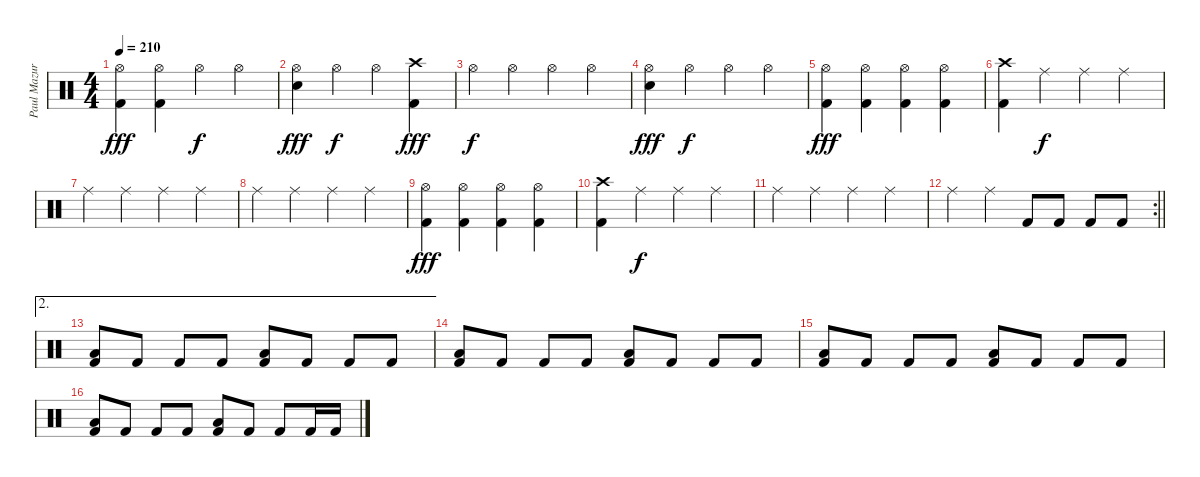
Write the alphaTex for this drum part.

\track ("Paul Mazurkiewicz" "Paul Mazur") {instrument percussion}
\staff {score}
\articulation defaults
\ts (4 4)
\tempo 210
\clef neutral
\ks c
("Hi-Hat (open)" "Kick (hit) 2").4{dy fff} ("Hi-Hat (open)" "Kick (hit) 2").4 "Hi-Hat (open)".4{dy f} "Hi-Hat (open)".4 |
("Hi-Hat (open)" "Electric Snare (hit)").4{dy fff} "Hi-Hat (open)".4{dy f} "Hi-Hat (open)".4 ("Crash high (hit)" "Kick (hit) 2").4{dy fff} |
"Hi-Hat (open)".4{dy f} "Hi-Hat (open)".4 "Hi-Hat (open)".4 "Hi-Hat (open)".4 |
("Hi-Hat (open)" "Electric Snare (hit)").4{dy fff} "Hi-Hat (open)".4{dy f} "Hi-Hat (open)".4 "Hi-Hat (open)".4 |
("Hi-Hat (open)" "Kick (hit) 2").4{dy fff} ("Hi-Hat (open)" "Kick (hit) 2").4 ("Hi-Hat (open)" "Kick (hit) 2").4 ("Hi-Hat (open)" "Kick (hit) 2").4 |
("Crash high (hit)" "Kick (hit) 2").4 "Ride (middle)".4{dy f} "Ride (middle)".4 "Ride (middle)".4 |
"Ride (middle)".4 "Ride (middle)".4 "Ride (middle)".4 "Ride (middle)".4 |
"Ride (middle)".4 "Ride (middle)".4 "Ride (middle)".4 "Ride (middle)".4 |
("Hi-Hat (open)" "Kick (hit) 2").4{dy fff} ("Hi-Hat (open)" "Kick (hit) 2").4 ("Hi-Hat (open)" "Kick (hit) 2").4 ("Hi-Hat (open)" "Kick (hit) 2").4 |
("Crash high (hit)" "Kick (hit) 2").4 "Ride (middle)".4{dy f} "Ride (middle)".4 "Ride (middle)".4 |
"Ride (middle)".4 "Ride (middle)".4 "Ride (middle)".4 "Ride (middle)".4 |
\rc 2
\barLineRight lightlight "Ride (middle)".4 "Ride (middle)".4 "Kick (hit) 2".8 "Kick (hit) 2".8 "Kick (hit) 2".8 "Kick (hit) 2".8
|
\ae 2
("Low Floor Tom (hit)" "Kick (hit) 2").8 "Kick (hit) 2".8 "Kick (hit) 2".8 "Kick (hit) 2".8 ("Low Floor Tom (hit)" "Kick (hit) 2").8 "Kick (hit) 2".8 "Kick (hit) 2".8 "Kick (hit) 2".8 |
("Low Floor Tom (hit)" "Kick (hit) 2").8 "Kick (hit) 2".8 "Kick (hit) 2".8 "Kick (hit) 2".8 ("Low Floor Tom (hit)" "Kick (hit) 2").8 "Kick (hit) 2".8 "Kick (hit) 2".8 "Kick (hit) 2".8 |
("Low Floor Tom (hit)" "Kick (hit) 2").8 "Kick (hit) 2".8 "Kick (hit) 2".8 "Kick (hit) 2".8 ("Low Floor Tom (hit)" "Kick (hit) 2").8 "Kick (hit) 2".8 "Kick (hit) 2".8 "Kick (hit) 2".8 |
("Low Floor Tom (hit)" "Kick (hit) 2").8 "Kick (hit) 2".8 "Kick (hit) 2".8 "Kick (hit) 2".8 ("Low Floor Tom (hit)" "Kick (hit) 2").8 "Kick (hit) 2".8 "Kick (hit) 2".8 "Kick (hit) 2".16 "Kick (hit) 2".16
